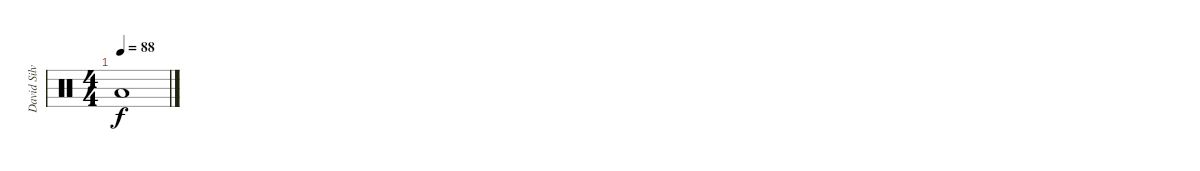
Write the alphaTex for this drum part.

\track ("David Silveria" "David Silv") {instrument percussion}
\staff {score}
\articulation defaults
\ts (4 4)
\tempo 88
\clef neutral
\ks c "Low Floor Tom (hit)".1{dy f}
